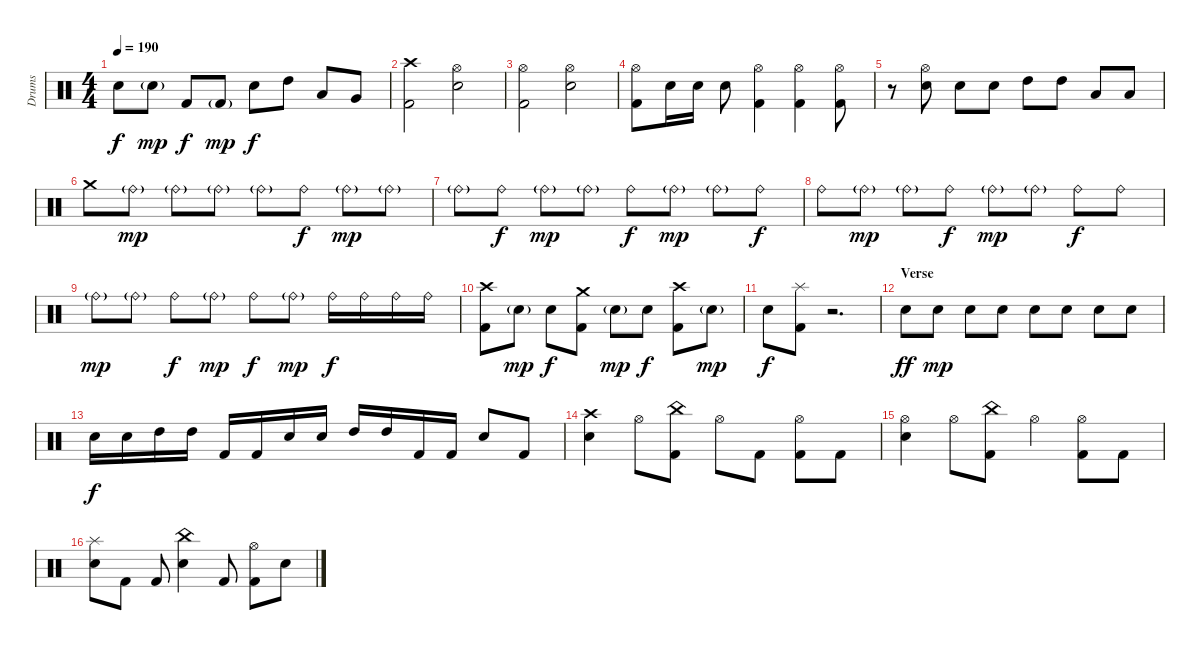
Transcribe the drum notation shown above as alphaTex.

\track ("Drums" "Drums") {instrument percussion}
\staff {score}
\articulation defaults
\ts (4 4)
\tempo 190
\clef neutral
\ks c "Snare (hit) 2".8{dy f} "Snare (hit) 2"{g}.8{dy mp} "Kick (hit) 2".8{dy f} "Kick (hit) 2"{g}.8{dy mp} "Snare (hit) 2".8{dy f} "High Tom (hit)".8 "Low Tom (hit)".8 "Very Low Tom (hit)".8
|
("Crash high (hit)" "Kick (hit) 2").2 ("Hi-Hat (open)" "Snare (hit) 2").2 |
("Hi-Hat (open)" "Kick (hit) 2").2 ("Hi-Hat (open)" "Snare (hit) 2").2 |
("Hi-Hat (open)" "Kick (hit) 2").8 "Snare (hit) 2".16 "Snare (hit) 2".16 "Snare (hit) 2".8 ("Hi-Hat (open)" "Kick (hit) 2").4 ("Hi-Hat (open)" "Kick (hit) 2").4 ("Hi-Hat (open)" "Kick (hit) 2").8 |
r.8 ("Hi-Hat (open)" "Snare (hit) 2").8 "Snare (hit) 2".8 "Snare (hit) 2".8 "High Tom (hit)".8 "High Tom (hit)".8 "Low Tom (hit)".8 "Low Tom (hit)".8 |
"Crash medium (hit)".8 "Ride (bell)"{g}.8{dy mp} "Ride (bell)"{g}.8 "Ride (bell)"{g}.8 "Ride (bell)"{g}.8 "Ride (bell)".8{dy f} "Ride (bell)"{g}.8{dy mp} "Ride (bell)"{g}.8 |
"Ride (bell)"{g}.8 "Ride (bell)".8{dy f} "Ride (bell)"{g}.8{dy mp} "Ride (bell)"{g}.8 "Ride (bell)".8{dy f} "Ride (bell)"{g}.8{dy mp} "Ride (bell)"{g}.8 "Ride (bell)".8{dy f} |
"Ride (bell)".8 "Ride (bell)"{g}.8{dy mp} "Ride (bell)"{g}.8 "Ride (bell)".8{dy f} "Ride (bell)"{g}.8{dy mp} "Ride (bell)"{g}.8 "Ride (bell)".8{dy f} "Ride (bell)".8 |
"Ride (bell)"{g}.8{dy mp} "Ride (bell)"{g}.8 "Ride (bell)".8{dy f} "Ride (bell)"{g}.8{dy mp} "Ride (bell)".8{dy f} "Ride (bell)"{g}.8{dy mp} "Ride (bell)".16{dy f} "Ride (bell)".16 "Ride (bell)".16 "Ride (bell)".16 |
("Crash high (hit)" "Kick (hit) 2").8 "Snare (hit) 2"{g}.8{dy mp} "Snare (hit) 2".8{dy f} ("Crash medium (hit)" "Kick (hit) 2").8 "Snare (hit) 2"{g}.8{dy mp} "Snare (hit) 2".8{dy f} ("Crash high (hit)" "Kick (hit) 2").8 "Snare (hit) 2"{g}.8{dy mp} |
"Snare (hit) 2".8{dy f} ("Splash (hit)" "Kick (hit) 2").8 r.2{d} |
\section ("" "Verse ")
"Snare (hit) 2".8{dy ff} "Snare (hit) 2".8{dy mp} "Snare (hit) 2".8 "Snare (hit) 2".8 "Snare (hit) 2".8 "Snare (hit) 2".8 "Snare (hit) 2".8 "Snare (hit) 2".8 |
"Snare (hit) 2".16{dy f} "Snare (hit) 2".16 "High Tom (hit)".16 "High Tom (hit)".16 "Kick (hit) 2".16 "Kick (hit) 2".16 "Snare (hit) 2".16 "Snare (hit) 2".16 "High Tom (hit)".16 "High Tom (hit)".16 "Kick (hit) 2".16 "Kick (hit) 2".16 "Snare (hit) 2".8 "Kick (hit) 2".8 |
("Crash high (hit)" "Snare (hit) 2").4 "Hi-Hat (open)".8 ("China (hit)" "Kick (hit) 2").8 "Hi-Hat (open)".8 "Kick (hit) 2".8 ("Hi-Hat (open)" "Kick (hit) 2").8 "Kick (hit) 2".8 |
("Hi-Hat (open)" "Snare (hit) 2").4 "Hi-Hat (open)".8 ("China (hit)" "Kick (hit) 2").8 "Hi-Hat (open)".4 ("Hi-Hat (open)" "Kick (hit) 2").8 "Kick (hit) 2".8 |
("Splash (hit)" "Snare (hit) 2").8 "Kick (hit) 2".8 "Kick (hit) 2".8 ("China (hit)" "Snare (hit) 2").4 "Kick (hit) 2".8 ("Hi-Hat (open)" "Kick (hit) 2").8 "Snare (hit) 2".8
